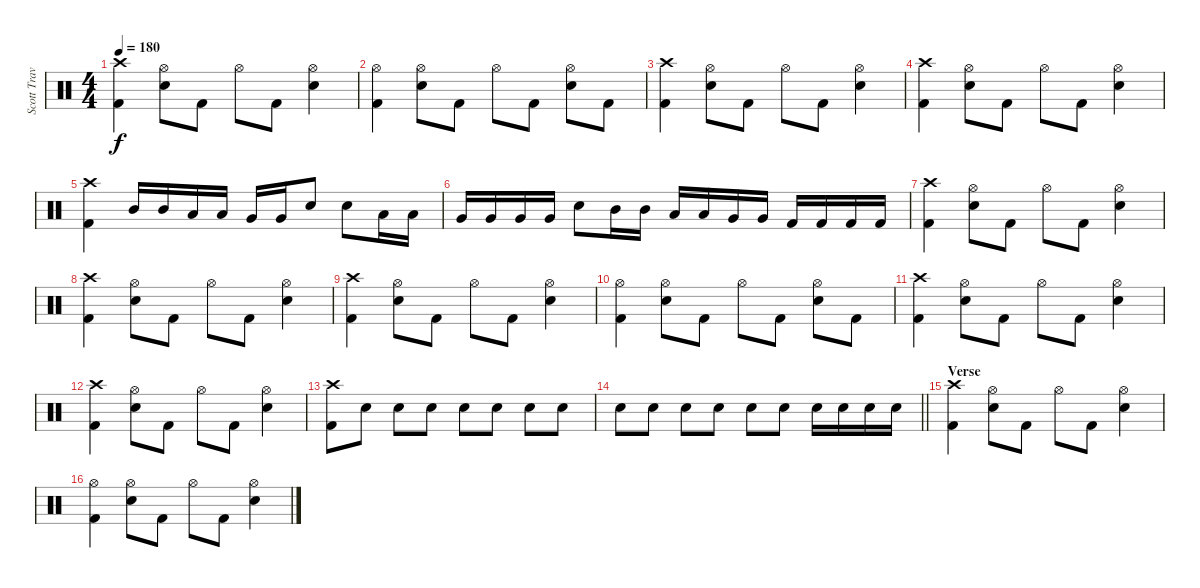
\track ("Scott Travis" "Scott Trav") {instrument percussion}
\staff {score}
\articulation defaults
\ts (4 4)
\tempo 180
\clef neutral
\ks c
("Crash high (hit)" "Kick (hit) 2").4{dy f} ("Hi-Hat (open)" "Snare (hit) 2").8 "Kick (hit) 2".8 "Hi-Hat (open)".8 "Kick (hit) 2".8 ("Hi-Hat (open)" "Snare (hit) 2").4 |
("Hi-Hat (open)" "Kick (hit) 2").4 ("Hi-Hat (open)" "Snare (hit) 2").8 "Kick (hit) 2".8 "Hi-Hat (open)".8 "Kick (hit) 2".8 ("Hi-Hat (open)" "Snare (hit) 2").8 "Kick (hit) 2".8 |
("Crash high (hit)" "Kick (hit) 2").4 ("Hi-Hat (open)" "Snare (hit) 2").8 "Kick (hit) 2".8 "Hi-Hat (open)".8 "Kick (hit) 2".8 ("Hi-Hat (open)" "Snare (hit) 2").4 |
("Crash high (hit)" "Kick (hit) 2").4 ("Hi-Hat (open)" "Snare (hit) 2").8 "Kick (hit) 2".8 "Hi-Hat (open)".8 "Kick (hit) 2".8 ("Hi-Hat (open)" "Snare (hit) 2").4 |
("Crash high (hit)" "Kick (hit) 2").4 "Mid Tom (hit)".16 "Mid Tom (hit)".16 "Low Tom (hit)".16 "Low Tom (hit)".16 "Very Low Tom (hit)".16 "Very Low Tom (hit)".16 "Snare (hit) 2".8 "Snare (hit) 2".8 "Low Tom (hit)".16 "Low Tom (hit)".16 |
"Very Low Tom (hit)".16 "Very Low Tom (hit)".16 "Very Low Tom (hit)".16 "Very Low Tom (hit)".16 "Snare (hit) 2".8 "Mid Tom (hit)".16 "Mid Tom (hit)".16 "Low Tom (hit)".16 "Low Tom (hit)".16 "Very Low Tom (hit)".16 "Very Low Tom (hit)".16 "Kick (hit) 2".16 "Kick (hit) 2".16 "Kick (hit) 2".16 "Kick (hit) 2".16 |
("Crash high (hit)" "Kick (hit) 2").4 ("Hi-Hat (open)" "Snare (hit) 2").8 "Kick (hit) 2".8 "Hi-Hat (open)".8 "Kick (hit) 2".8 ("Hi-Hat (open)" "Snare (hit) 2").4 |
("Crash high (hit)" "Kick (hit) 2").4 ("Hi-Hat (open)" "Snare (hit) 2").8 "Kick (hit) 2".8 "Hi-Hat (open)".8 "Kick (hit) 2".8 ("Hi-Hat (open)" "Snare (hit) 2").4 |
("Crash high (hit)" "Kick (hit) 2").4 ("Hi-Hat (open)" "Snare (hit) 2").8 "Kick (hit) 2".8 "Hi-Hat (open)".8 "Kick (hit) 2".8 ("Hi-Hat (open)" "Snare (hit) 2").4 |
("Hi-Hat (open)" "Kick (hit) 2").4 ("Hi-Hat (open)" "Snare (hit) 2").8 "Kick (hit) 2".8 "Hi-Hat (open)".8 "Kick (hit) 2".8 ("Hi-Hat (open)" "Snare (hit) 2").8 "Kick (hit) 2".8 |
("Crash high (hit)" "Kick (hit) 2").4 ("Hi-Hat (open)" "Snare (hit) 2").8 "Kick (hit) 2".8 "Hi-Hat (open)".8 "Kick (hit) 2".8 ("Hi-Hat (open)" "Snare (hit) 2").4 |
("Crash high (hit)" "Kick (hit) 2").4 ("Hi-Hat (open)" "Snare (hit) 2").8 "Kick (hit) 2".8 "Hi-Hat (open)".8 "Kick (hit) 2".8 ("Hi-Hat (open)" "Snare (hit) 2").4 |
("Crash high (hit)" "Kick (hit) 2").8 "Snare (hit) 2".8{volume 7} "Snare (hit) 2".8{volume 16} "Snare (hit) 2".8 "Snare (hit) 2".8 "Snare (hit) 2".8 "Snare (hit) 2".8 "Snare (hit) 2".8 |
\barLineRight lightlight "Snare (hit) 2".8 "Snare (hit) 2".8 "Snare (hit) 2".8 "Snare (hit) 2".8 "Snare (hit) 2".8 "Snare (hit) 2".8 "Snare (hit) 2".16 "Snare (hit) 2".16 "Snare (hit) 2".16 "Snare (hit) 2".16
|
\section ("" "Verse")
("Crash high (hit)" "Kick (hit) 2").4 ("Hi-Hat (open)" "Snare (hit) 2").8 "Kick (hit) 2".8 "Hi-Hat (open)".8 "Kick (hit) 2".8 ("Hi-Hat (open)" "Snare (hit) 2").4 |
("Hi-Hat (open)" "Kick (hit) 2").4 ("Hi-Hat (open)" "Snare (hit) 2").8 "Kick (hit) 2".8 "Hi-Hat (open)".8 "Kick (hit) 2".8 ("Hi-Hat (open)" "Snare (hit) 2").4
